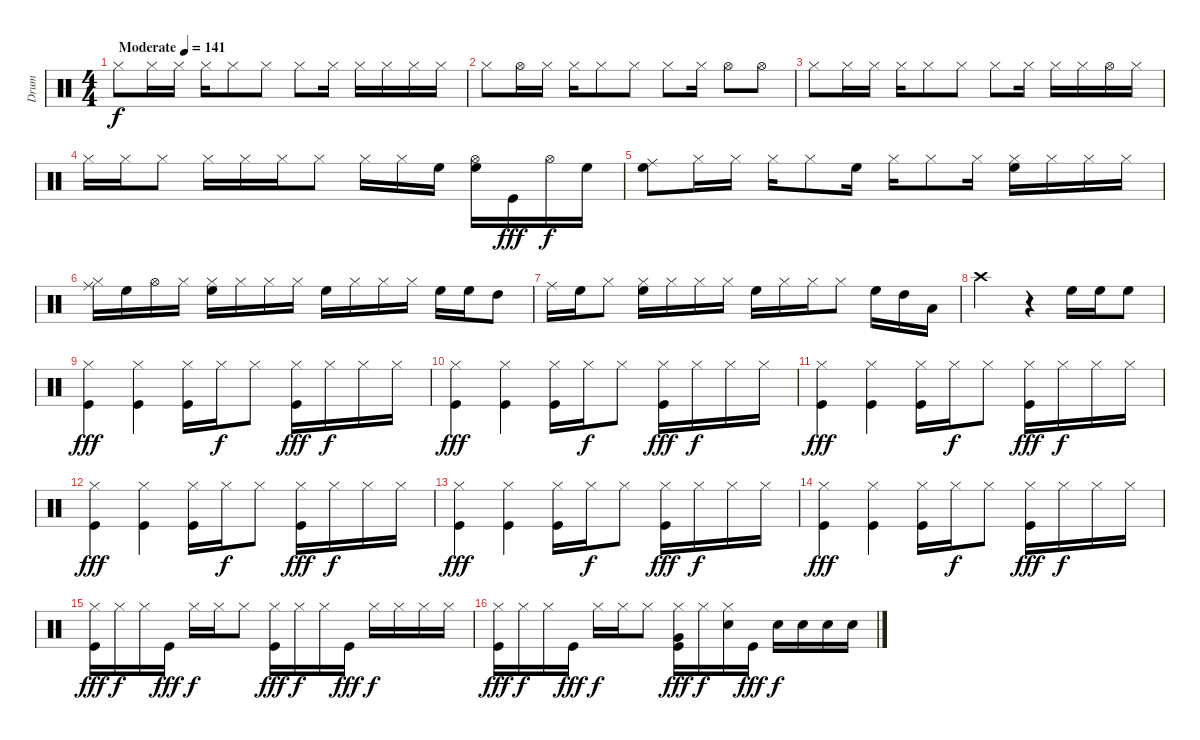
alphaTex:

\track ("Drum" "Drum") {instrument percussion}
\staff {score}
\articulation defaults
\ts (4 4)
\tempo (141 "Moderate")
\clef neutral
\ks c "Hi-Hat (closed)".8{dy f} "Hi-Hat (closed)".16 "Hi-Hat (closed)".16 "Hi-Hat (closed)".16 "Hi-Hat (closed)".8 "Hi-Hat (closed)".8 "Hi-Hat (closed)".8 "Hi-Hat (closed)".16 "Hi-Hat (closed)".16 "Hi-Hat (closed)".16 "Hi-Hat (closed)".16 "Hi-Hat (closed)".16
|
"Hi-Hat (closed)".8 "Hi-Hat (open)".16 "Hi-Hat (closed)".16 "Hi-Hat (closed)".16 "Hi-Hat (closed)".8 "Hi-Hat (closed)".8 "Hi-Hat (closed)".8 "Hi-Hat (closed)".16 "Hi-Hat (open)".8 "Hi-Hat (open)".8 |
"Hi-Hat (closed)".8 "Hi-Hat (closed)".16 "Hi-Hat (closed)".16 "Hi-Hat (closed)".16 "Hi-Hat (closed)".8 "Hi-Hat (closed)".8 "Hi-Hat (closed)".8 "Hi-Hat (closed)".16 "Hi-Hat (closed)".16 "Hi-Hat (closed)".16 "Hi-Hat (open)".16 "Hi-Hat (closed)".16 |
"Hi-Hat (closed)".16 "Hi-Hat (closed)".16 "Hi-Hat (closed)".8 "Hi-Hat (closed)".16 "Hi-Hat (closed)".16 "Hi-Hat (closed)".16 "Hi-Hat (closed)".8 "Hi-Hat (closed)".16 "Hi-Hat (closed)".16 "High Floor Tom (hit)".16 ("Hi-Hat (open)" "High Floor Tom (hit)").16 "Kick (hit)".16{dy fff} "Hi-Hat (open)".16{dy f} "High Floor Tom (hit)".16 |
("Ride (middle)" "High Floor Tom (hit)").8 "Hi-Hat (closed)".16 "Hi-Hat (closed)".16 "Hi-Hat (closed)".16 "Hi-Hat (closed)".8 "High Floor Tom (hit)".16 "Hi-Hat (closed)".16 "Hi-Hat (closed)".8 "Hi-Hat (closed)".16 ("Hi-Hat (closed)" "High Floor Tom (hit)").16 "Hi-Hat (closed)".16 "Hi-Hat (closed)".16 "Hi-Hat (closed)".16 |
("Hi-Hat (closed)" "Ride (middle)").16 "High Floor Tom (hit)".16 "Hi-Hat (open)".16 "Hi-Hat (closed)".16 ("Hi-Hat (closed)" "High Floor Tom (hit)").16 "Hi-Hat (closed)".16 "Hi-Hat (closed)".16 "Hi-Hat (closed)".16 "High Floor Tom (hit)".16 "Hi-Hat (closed)".16 "Hi-Hat (closed)".16 "Hi-Hat (closed)".16 "High Floor Tom (hit)".16 "High Floor Tom (hit)".16 "High Tom (hit)".8 |
"Ride (middle)".16 "High Floor Tom (hit)".16 "Hi-Hat (closed)".8 ("Hi-Hat (closed)" "High Floor Tom (hit)").16 "Hi-Hat (closed)".16 "Hi-Hat (closed)".16 "Hi-Hat (closed)".16 "High Floor Tom (hit)".16 "Hi-Hat (closed)".16 "Hi-Hat (closed)".16 "Hi-Hat (closed)".8 "High Floor Tom (hit)".16 "High Tom (hit)".16 "Low Tom (hit)".16 |
"Crash high (hit)".2 r.4 "High Floor Tom (hit)".16 "High Floor Tom (hit)".16 "High Floor Tom (hit)".8 |
("Hi-Hat (closed)" "Kick (hit)").4{dy fff} ("Hi-Hat (closed)" "Kick (hit)").4 ("Hi-Hat (closed)" "Kick (hit)").16 "Hi-Hat (closed)".16{dy f} "Hi-Hat (closed)".8 ("Hi-Hat (closed)" "Kick (hit)").16{dy fff} "Hi-Hat (closed)".16{dy f} "Hi-Hat (closed)".16 "Hi-Hat (closed)".16 |
("Hi-Hat (closed)" "Kick (hit)").4{dy fff} ("Hi-Hat (closed)" "Kick (hit)").4 ("Hi-Hat (closed)" "Kick (hit)").16 "Hi-Hat (closed)".16{dy f} "Hi-Hat (closed)".8 ("Hi-Hat (closed)" "Kick (hit)").16{dy fff} "Hi-Hat (closed)".16{dy f} "Hi-Hat (closed)".16 "Hi-Hat (closed)".16 |
("Hi-Hat (closed)" "Kick (hit)").4{dy fff} ("Hi-Hat (closed)" "Kick (hit)").4 ("Hi-Hat (closed)" "Kick (hit)").16 "Hi-Hat (closed)".16{dy f} "Hi-Hat (closed)".8 ("Hi-Hat (closed)" "Kick (hit)").16{dy fff} "Hi-Hat (closed)".16{dy f} "Hi-Hat (closed)".16 "Hi-Hat (closed)".16 |
("Hi-Hat (closed)" "Kick (hit)").4{dy fff} ("Hi-Hat (closed)" "Kick (hit)").4 ("Hi-Hat (closed)" "Kick (hit)").16 "Hi-Hat (closed)".16{dy f} "Hi-Hat (closed)".8 ("Hi-Hat (closed)" "Kick (hit)").16{dy fff} "Hi-Hat (closed)".16{dy f} "Hi-Hat (closed)".16 "Hi-Hat (closed)".16 |
("Hi-Hat (closed)" "Kick (hit)").4{dy fff} ("Hi-Hat (closed)" "Kick (hit)").4 ("Hi-Hat (closed)" "Kick (hit)").16 "Hi-Hat (closed)".16{dy f} "Hi-Hat (closed)".8 ("Hi-Hat (closed)" "Kick (hit)").16{dy fff} "Hi-Hat (closed)".16{dy f} "Hi-Hat (closed)".16 "Hi-Hat (closed)".16 |
("Hi-Hat (closed)" "Kick (hit)").4{dy fff} ("Hi-Hat (closed)" "Kick (hit)").4 ("Hi-Hat (closed)" "Kick (hit)").16 "Hi-Hat (closed)".16{dy f} "Hi-Hat (closed)".8 ("Hi-Hat (closed)" "Kick (hit)").16{dy fff} "Hi-Hat (closed)".16{dy f} "Hi-Hat (closed)".16 "Hi-Hat (closed)".16 |
("Hi-Hat (closed)" "Kick (hit)").16{dy fff} "Hi-Hat (closed)".16{dy f} "Hi-Hat (closed)".16 "Kick (hit)".16{dy fff} "Hi-Hat (closed)".16{dy f} "Hi-Hat (closed)".16 "Hi-Hat (closed)".8 ("Hi-Hat (closed)" "Kick (hit)").16{dy fff} "Hi-Hat (closed)".16{dy f} "Hi-Hat (closed)".16 "Kick (hit)".16{dy fff} "Hi-Hat (closed)".16{dy f} "Hi-Hat (closed)".16 "Hi-Hat (closed)".16 "Hi-Hat (closed)".16 |
("Hi-Hat (closed)" "Kick (hit)").16{dy fff} "Hi-Hat (closed)".16{dy f} "Hi-Hat (closed)".16 "Kick (hit)".16{dy fff} "Hi-Hat (closed)".16{dy f} "Hi-Hat (closed)".16 "Hi-Hat (closed)".8 ("Hi-Hat (closed)" "Very Low Tom (hit)" "Kick (hit)").16{dy fff} "Hi-Hat (closed)".16{dy f} ("Hi-Hat (closed)" "Electric Snare (hit)").16 "Kick (hit)".16{dy fff} "Electric Snare (hit)".16{dy f} "Electric Snare (hit)".16 "Electric Snare (hit)".16 "Electric Snare (hit)".16
